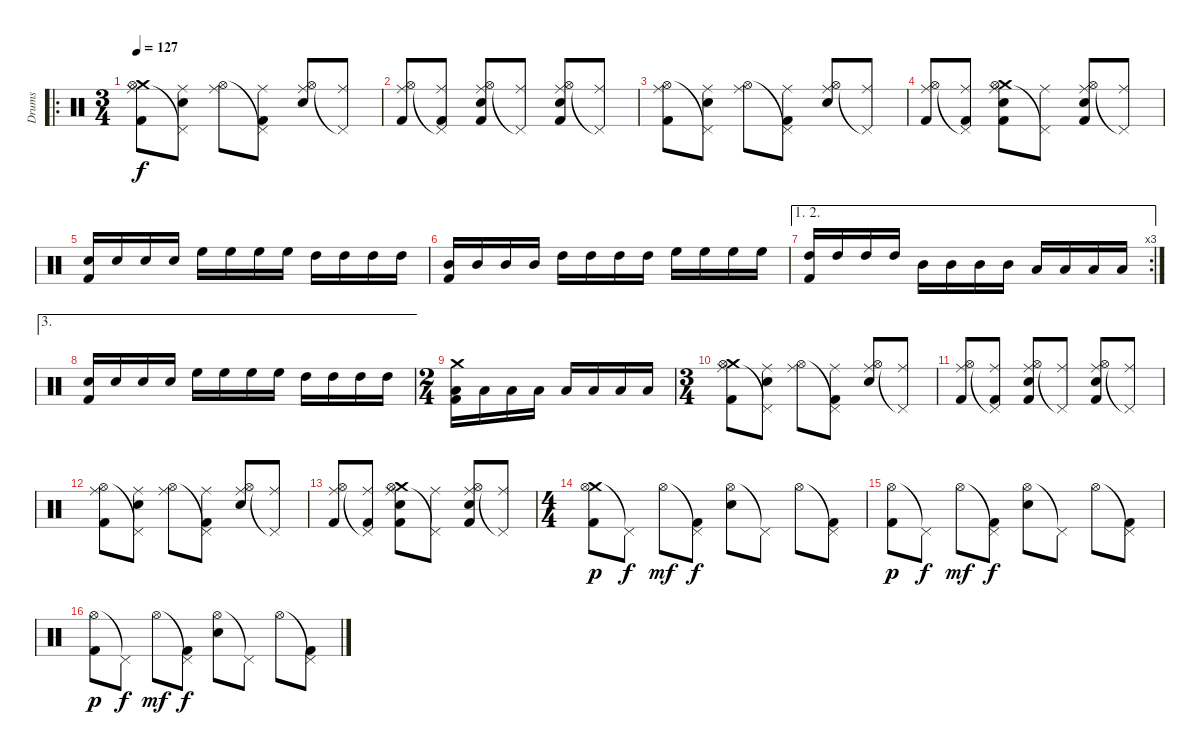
\track ("Drums" "Drums") {instrument percussion}
\staff {score}
\articulation defaults
\ro
\ts (3 4)
\tempo 127
\clef neutral
\ks c
("Crash medium (hit)" "Ride (middle)" "Hi-Hat (open)" "Kick (hit) 2").8{dy f} ("Ride (middle)" "Pedal Hi-Hat (hit)"{t} "Electric Snare (hit)").8 ("Ride (middle)" "Hi-Hat (open)").8 ("Ride (middle)" "Pedal Hi-Hat (hit)"{t} "Kick (hit) 2").8 ("Ride (middle)" "Hi-Hat (open)" "Electric Snare (hit)").8 ("Ride (middle)" "Pedal Hi-Hat (hit)"{t}).8 |
("Ride (middle)" "Hi-Hat (open)" "Kick (hit) 2").8 ("Ride (middle)" "Pedal Hi-Hat (hit)"{t} "Kick (hit) 2").8 ("Ride (middle)" "Hi-Hat (open)" "Electric Snare (hit)" "Kick (hit) 2").8 ("Ride (middle)" "Pedal Hi-Hat (hit)"{t}).8 ("Ride (middle)" "Hi-Hat (open)" "Electric Snare (hit)" "Kick (hit) 2").8 ("Ride (middle)" "Pedal Hi-Hat (hit)"{t}).8 |
("Ride (middle)" "Hi-Hat (open)" "Kick (hit) 2").8 ("Ride (middle)" "Pedal Hi-Hat (hit)"{t} "Electric Snare (hit)").8 ("Ride (middle)" "Hi-Hat (open)").8 ("Ride (middle)" "Pedal Hi-Hat (hit)"{t} "Kick (hit) 2").8 ("Ride (middle)" "Hi-Hat (open)" "Electric Snare (hit)").8 ("Ride (middle)" "Pedal Hi-Hat (hit)"{t}).8 |
("Ride (middle)" "Hi-Hat (open)" "Kick (hit) 2").8 ("Ride (middle)" "Pedal Hi-Hat (hit)"{t} "Kick (hit) 2").8 ("Crash medium (hit)" "Ride (middle)" "Hi-Hat (open)" "Electric Snare (hit)" "Kick (hit) 2").8 ("Ride (middle)" "Pedal Hi-Hat (hit)"{t}).8 ("Ride (middle)" "Hi-Hat (open)" "Electric Snare (hit)" "Kick (hit) 2").8 ("Ride (middle)" "Pedal Hi-Hat (hit)"{t}).8 |
("Electric Snare (hit)" "Kick (hit) 2").16 "Electric Snare (hit)".16 "Electric Snare (hit)".16 "Electric Snare (hit)".16 "High Floor Tom (hit)".16 "High Floor Tom (hit)".16 "High Floor Tom (hit)".16 "High Floor Tom (hit)".16 "High Tom (hit)".16 "High Tom (hit)".16 "High Tom (hit)".16 "High Tom (hit)".16 |
("Mid Tom (hit)" "Kick (hit) 2").16 "Mid Tom (hit)".16 "Mid Tom (hit)".16 "Mid Tom (hit)".16 "High Tom (hit)".16 "High Tom (hit)".16 "High Tom (hit)".16 "High Tom (hit)".16 "High Floor Tom (hit)".16 "High Floor Tom (hit)".16 "High Floor Tom (hit)".16 "High Floor Tom (hit)".16 |
\ae (1 2)
\rc 3
("High Tom (hit)" "Kick (hit) 2").16 "High Tom (hit)".16 "High Tom (hit)".16 "High Tom (hit)".16 "Mid Tom (hit)".16 "Mid Tom (hit)".16 "Mid Tom (hit)".16 "Mid Tom (hit)".16 "Low Tom (hit)".16 "Low Tom (hit)".16 "Low Tom (hit)".16 "Low Tom (hit)".16 |
\ae 3
("Electric Snare (hit)" "Kick (hit) 2").16 "Electric Snare (hit)".16 "Electric Snare (hit)".16 "Electric Snare (hit)".16 "High Floor Tom (hit)".16 "High Floor Tom (hit)".16 "High Floor Tom (hit)".16 "High Floor Tom (hit)".16 "High Tom (hit)".16 "High Tom (hit)".16 "High Tom (hit)".16 "High Tom (hit)".16 |
\ts (2 4)
("Crash medium (hit)" "Low Tom (hit)" "Kick (hit) 2").16 "Low Tom (hit)".16 "Low Tom (hit)".16 "Low Tom (hit)".16 "Low Tom (hit)".16 "Low Tom (hit)".16 "Low Tom (hit)".16 "Low Tom (hit)".16 |
\ts (3 4)
("Crash medium (hit)" "Ride (middle)" "Hi-Hat (open)" "Kick (hit) 2").8 ("Ride (middle)" "Pedal Hi-Hat (hit)"{t} "Electric Snare (hit)").8 ("Ride (middle)" "Hi-Hat (open)").8 ("Ride (middle)" "Pedal Hi-Hat (hit)"{t} "Kick (hit) 2").8 ("Ride (middle)" "Hi-Hat (open)" "Electric Snare (hit)").8 ("Ride (middle)" "Pedal Hi-Hat (hit)"{t}).8 |
("Ride (middle)" "Hi-Hat (open)" "Kick (hit) 2").8 ("Ride (middle)" "Pedal Hi-Hat (hit)"{t} "Kick (hit) 2").8 ("Ride (middle)" "Hi-Hat (open)" "Electric Snare (hit)" "Kick (hit) 2").8 ("Ride (middle)" "Pedal Hi-Hat (hit)"{t}).8 ("Ride (middle)" "Hi-Hat (open)" "Electric Snare (hit)" "Kick (hit) 2").8 ("Ride (middle)" "Pedal Hi-Hat (hit)"{t}).8 |
("Ride (middle)" "Hi-Hat (open)" "Kick (hit) 2").8 ("Ride (middle)" "Pedal Hi-Hat (hit)"{t} "Electric Snare (hit)").8 ("Ride (middle)" "Hi-Hat (open)").8 ("Ride (middle)" "Pedal Hi-Hat (hit)"{t} "Kick (hit) 2").8 ("Ride (middle)" "Hi-Hat (open)" "Electric Snare (hit)").8 ("Ride (middle)" "Pedal Hi-Hat (hit)"{t}).8 |
("Ride (middle)" "Hi-Hat (open)" "Kick (hit) 2").8 ("Ride (middle)" "Pedal Hi-Hat (hit)"{t} "Kick (hit) 2").8 ("Crash medium (hit)" "Ride (middle)" "Hi-Hat (open)" "Electric Snare (hit)" "Kick (hit) 2").8 ("Ride (middle)" "Pedal Hi-Hat (hit)"{t}).8 ("Ride (middle)" "Hi-Hat (open)" "Electric Snare (hit)" "Kick (hit) 2").8 ("Ride (middle)" "Pedal Hi-Hat (hit)"{t}).8 |
\ts (4 4)
("Crash medium (hit)" "Hi-Hat (open)" "Kick (hit) 2").8{dy p} "Pedal Hi-Hat (hit)"{t}.8{dy f} "Hi-Hat (open)".8{dy mf} ("Pedal Hi-Hat (hit)"{t} "Kick (hit) 2").8{dy f} ("Hi-Hat (open)" "Electric Snare (hit)").8 "Pedal Hi-Hat (hit)"{t}.8 "Hi-Hat (open)".8 ("Pedal Hi-Hat (hit)"{t} "Kick (hit) 2").8 |
("Hi-Hat (open)" "Kick (hit) 2").8{dy p} "Pedal Hi-Hat (hit)"{t}.8{dy f} "Hi-Hat (open)".8{dy mf} ("Pedal Hi-Hat (hit)"{t} "Kick (hit) 2").8{dy f} ("Hi-Hat (open)" "Electric Snare (hit)").8 "Pedal Hi-Hat (hit)"{t}.8 "Hi-Hat (open)".8 ("Pedal Hi-Hat (hit)"{t} "Kick (hit) 2").8 |
("Hi-Hat (open)" "Kick (hit) 2").8{dy p} "Pedal Hi-Hat (hit)"{t}.8{dy f} "Hi-Hat (open)".8{dy mf} ("Pedal Hi-Hat (hit)"{t} "Kick (hit) 2").8{dy f} ("Hi-Hat (open)" "Electric Snare (hit)").8 "Pedal Hi-Hat (hit)"{t}.8 "Hi-Hat (open)".8 ("Pedal Hi-Hat (hit)"{t} "Kick (hit) 2").8
